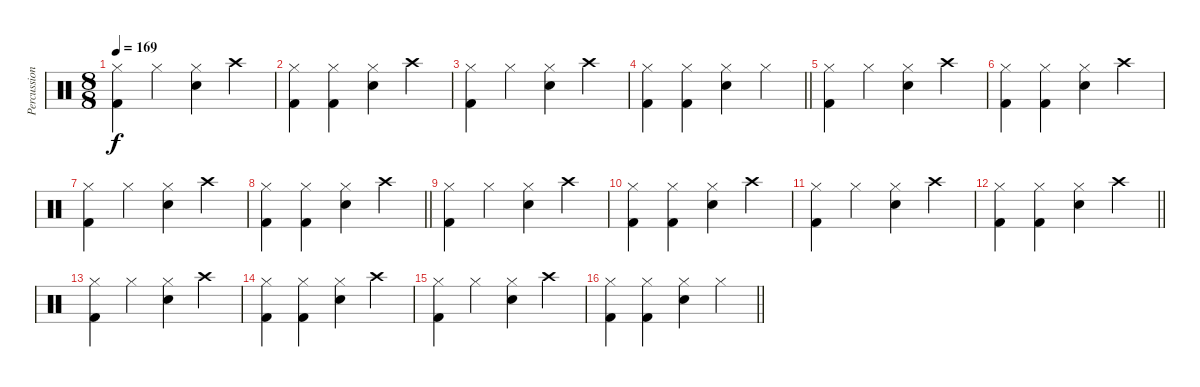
\track ("Percussion" "Percussion") {instrument percussion}
\staff {score}
\articulation defaults
\ts (8 8)
\tempo 169
\clef neutral
\ks c
("Hi-Hat (closed)" "Kick (hit) 2").4{dy f} "Hi-Hat (closed)".4 ("Hi-Hat (closed)" "Snare (hit) 2").4 "Crash high (hit)".4 |
("Hi-Hat (closed)" "Kick (hit) 2").4 ("Hi-Hat (closed)" "Kick (hit) 2").4 ("Hi-Hat (closed)" "Snare (hit) 2").4 "Crash high (hit)".4 |
("Hi-Hat (closed)" "Kick (hit) 2").4 "Hi-Hat (closed)".4 ("Hi-Hat (closed)" "Snare (hit) 2").4 "Crash high (hit)".4 |
\barLineRight lightlight
("Hi-Hat (closed)" "Kick (hit) 2").4 ("Hi-Hat (closed)" "Kick (hit) 2").4 ("Hi-Hat (closed)" "Snare (hit) 2").4 "Hi-Hat (closed)".4 |
("Hi-Hat (closed)" "Kick (hit) 2").4 "Hi-Hat (closed)".4 ("Hi-Hat (closed)" "Snare (hit) 2").4 "Crash high (hit)".4 |
("Hi-Hat (closed)" "Kick (hit) 2").4 ("Hi-Hat (closed)" "Kick (hit) 2").4 ("Hi-Hat (closed)" "Snare (hit) 2").4 "Crash high (hit)".4 |
("Hi-Hat (closed)" "Kick (hit) 2").4 "Hi-Hat (closed)".4 ("Hi-Hat (closed)" "Snare (hit) 2").4 "Crash high (hit)".4 |
\barLineRight lightlight
("Hi-Hat (closed)" "Kick (hit) 2").4 ("Hi-Hat (closed)" "Kick (hit) 2").4 ("Hi-Hat (closed)" "Snare (hit) 2").4 "Crash high (hit)".4 |
("Hi-Hat (closed)" "Kick (hit) 2").4 "Hi-Hat (closed)".4 ("Hi-Hat (closed)" "Snare (hit) 2").4 "Crash high (hit)".4 |
("Hi-Hat (closed)" "Kick (hit) 2").4 ("Hi-Hat (closed)" "Kick (hit) 2").4 ("Hi-Hat (closed)" "Snare (hit) 2").4 "Crash high (hit)".4 |
("Hi-Hat (closed)" "Kick (hit) 2").4 "Hi-Hat (closed)".4 ("Hi-Hat (closed)" "Snare (hit) 2").4 "Crash high (hit)".4 |
\barLineRight lightlight
("Hi-Hat (closed)" "Kick (hit) 2").4 ("Hi-Hat (closed)" "Kick (hit) 2").4 ("Hi-Hat (closed)" "Snare (hit) 2").4 "Crash high (hit)".4 |
("Hi-Hat (closed)" "Kick (hit) 2").4 "Hi-Hat (closed)".4 ("Hi-Hat (closed)" "Snare (hit) 2").4 "Crash high (hit)".4 |
("Hi-Hat (closed)" "Kick (hit) 2").4 ("Hi-Hat (closed)" "Kick (hit) 2").4 ("Hi-Hat (closed)" "Snare (hit) 2").4 "Crash high (hit)".4 |
("Hi-Hat (closed)" "Kick (hit) 2").4 "Hi-Hat (closed)".4 ("Hi-Hat (closed)" "Snare (hit) 2").4 "Crash high (hit)".4 |
\barLineRight lightlight
("Hi-Hat (closed)" "Kick (hit) 2").4 ("Hi-Hat (closed)" "Kick (hit) 2").4 ("Hi-Hat (closed)" "Snare (hit) 2").4 "Hi-Hat (closed)".4
